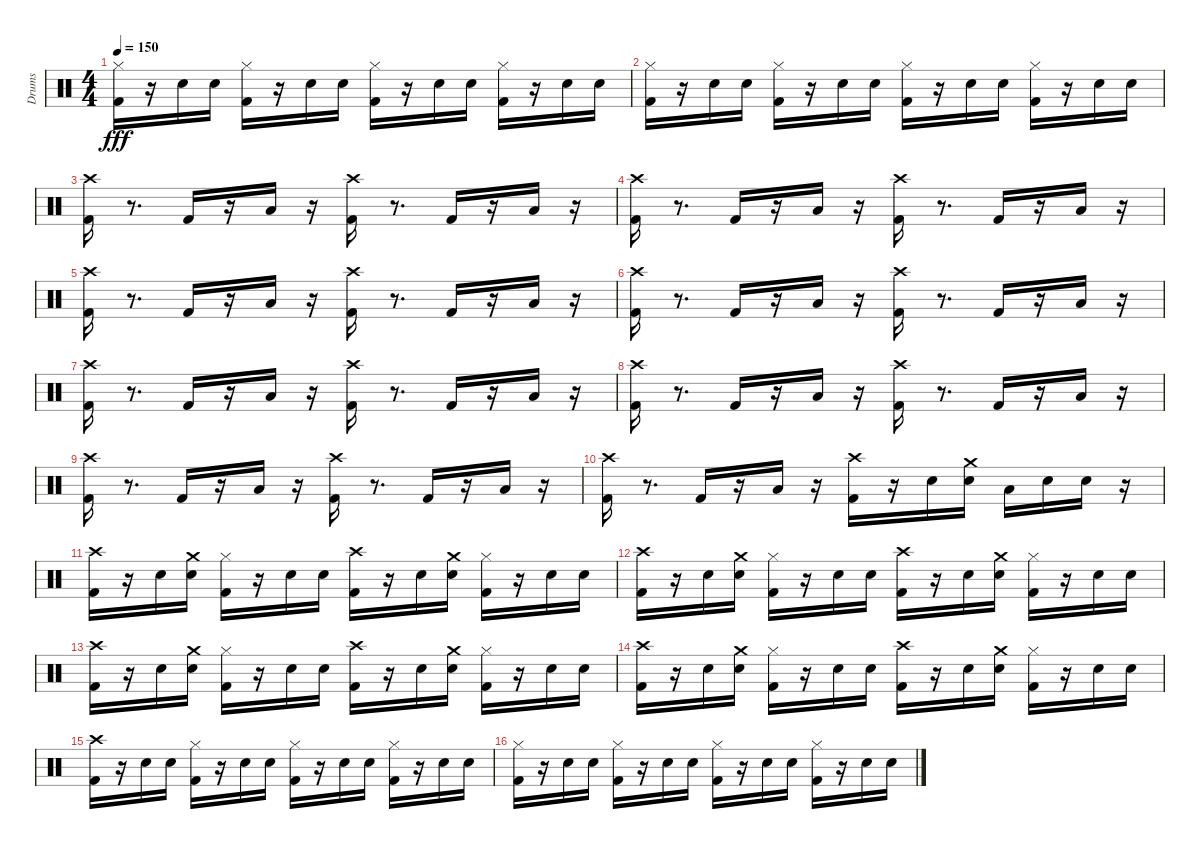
\track ("Drums" "Drums") {instrument percussion}
\staff {score}
\articulation defaults
\ts (4 4)
\tempo 150
\clef neutral
\ks c
("Kick (hit) 2" "Hi-Hat (closed)").16{dy fff} r.16 "Snare (hit) 2".16 "Snare (hit) 2".16 ("Kick (hit) 2" "Hi-Hat (closed)").16 r.16 "Snare (hit) 2".16 "Snare (hit) 2".16 ("Kick (hit) 2" "Hi-Hat (closed)").16 r.16 "Snare (hit) 2".16 "Snare (hit) 2".16 ("Hi-Hat (closed)" "Kick (hit) 2").16 r.16 "Snare (hit) 2".16 "Snare (hit) 2".16 |
("Hi-Hat (closed)" "Kick (hit) 2").16 r.16 "Snare (hit) 2".16 "Snare (hit) 2".16 ("Hi-Hat (closed)" "Kick (hit) 2").16 r.16 "Snare (hit) 2".16 "Snare (hit) 2".16 ("Kick (hit) 2" "Hi-Hat (closed)").16 r.16 "Snare (hit) 2".16 "Snare (hit) 2".16 ("Hi-Hat (closed)" "Kick (hit) 2").16 r.16 "Snare (hit) 2".16 "Snare (hit) 2".16 |
("Kick (hit) 2" "Crash high (hit)").16 r.8{d} "Kick (hit) 2".16 r.16 "Low Floor Tom (hit)".16 r.16 ("Kick (hit) 2" "Crash high (hit)").16 r.8{d} "Kick (hit) 2".16 r.16 "Low Floor Tom (hit)".16 r.16 |
("Crash high (hit)" "Kick (hit) 2").16 r.8{d} "Kick (hit) 2".16 r.16 "Low Floor Tom (hit)".16 r.16 ("Kick (hit) 2" "Crash high (hit)").16 r.8{d} "Kick (hit) 2".16 r.16 "Low Floor Tom (hit)".16 r.16 |
("Kick (hit) 2" "Crash high (hit)").16 r.8{d} "Kick (hit) 2".16 r.16 "Low Floor Tom (hit)".16 r.16 ("Kick (hit) 2" "Crash high (hit)").16 r.8{d} "Kick (hit) 2".16 r.16 "Low Floor Tom (hit)".16 r.16 |
("Kick (hit) 2" "Crash high (hit)").16 r.8{d} "Kick (hit) 2".16 r.16 "Low Floor Tom (hit)".16 r.16 ("Kick (hit) 2" "Crash high (hit)").16 r.8{d} "Kick (hit) 2".16 r.16 "Low Floor Tom (hit)".16 r.16 |
("Kick (hit) 2" "Crash high (hit)").16 r.8{d} "Kick (hit) 2".16 r.16 "Low Floor Tom (hit)".16 r.16 ("Kick (hit) 2" "Crash high (hit)").16 r.8{d} "Kick (hit) 2".16 r.16 "Low Floor Tom (hit)".16 r.16 |
("Crash high (hit)" "Kick (hit) 2").16 r.8{d} "Kick (hit) 2".16 r.16 "Low Floor Tom (hit)".16 r.16 ("Crash high (hit)" "Kick (hit) 2").16 r.8{d} "Kick (hit) 2".16 r.16 "Low Floor Tom (hit)".16 r.16 |
("Kick (hit) 2" "Crash high (hit)").16 r.8{d} "Kick (hit) 2".16 r.16 "Low Floor Tom (hit)".16 r.16 ("Kick (hit) 2" "Crash high (hit)").16 r.8{d} "Kick (hit) 2".16 r.16 "Low Floor Tom (hit)".16 r.16 |
("Kick (hit) 2" "Crash high (hit)").16 r.8{d} "Kick (hit) 2".16 r.16 "Low Floor Tom (hit)".16 r.16 ("Kick (hit) 2" "Crash high (hit)").16 r.16 "Snare (hit) 2".16 ("Crash medium (hit)" "Snare (hit) 2").16 "Low Tom (hit)".16 "Snare (hit) 2".16 "Snare (hit) 2".16 r.16 |
("Kick (hit) 2" "Crash high (hit)").16 r.16 "Snare (hit) 2".16 ("Crash medium (hit)" "Snare (hit) 2").16 ("Kick (hit) 2" "Hi-Hat (closed)").16 r.16 "Snare (hit) 2".16 "Snare (hit) 2".16 ("Crash high (hit)" "Kick (hit) 2").16 r.16 "Snare (hit) 2".16 ("Crash medium (hit)" "Snare (hit) 2").16 ("Hi-Hat (closed)" "Kick (hit) 2").16 r.16 "Snare (hit) 2".16 "Snare (hit) 2".16 |
("Crash high (hit)" "Kick (hit) 2").16 r.16 "Snare (hit) 2".16 ("Snare (hit) 2" "Crash medium (hit)").16 ("Kick (hit) 2" "Hi-Hat (closed)").16 r.16 "Snare (hit) 2".16 "Snare (hit) 2".16 ("Crash high (hit)" "Kick (hit) 2").16 r.16 "Snare (hit) 2".16 ("Crash medium (hit)" "Snare (hit) 2").16 ("Hi-Hat (closed)" "Kick (hit) 2").16 r.16 "Snare (hit) 2".16 "Snare (hit) 2".16 |
("Crash high (hit)" "Kick (hit) 2").16 r.16 "Snare (hit) 2".16 ("Crash medium (hit)" "Snare (hit) 2").16 ("Kick (hit) 2" "Hi-Hat (closed)").16 r.16 "Snare (hit) 2".16 "Snare (hit) 2".16 ("Kick (hit) 2" "Crash high (hit)").16 r.16 "Snare (hit) 2".16 ("Snare (hit) 2" "Crash medium (hit)").16 ("Hi-Hat (closed)" "Kick (hit) 2").16 r.16 "Snare (hit) 2".16 "Snare (hit) 2".16 |
("Kick (hit) 2" "Crash high (hit)").16 r.16 "Snare (hit) 2".16 ("Snare (hit) 2" "Crash medium (hit)").16 ("Hi-Hat (closed)" "Kick (hit) 2").16 r.16 "Snare (hit) 2".16 "Snare (hit) 2".16 ("Crash high (hit)" "Kick (hit) 2").16 r.16 "Snare (hit) 2".16 ("Crash medium (hit)" "Snare (hit) 2").16 ("Hi-Hat (closed)" "Kick (hit) 2").16 r.16 "Snare (hit) 2".16 "Snare (hit) 2".16 |
("Crash high (hit)" "Kick (hit) 2").16 r.16 "Snare (hit) 2".16 "Snare (hit) 2".16 ("Hi-Hat (closed)" "Kick (hit) 2").16 r.16 "Snare (hit) 2".16 "Snare (hit) 2".16 ("Hi-Hat (closed)" "Kick (hit) 2").16 r.16 "Snare (hit) 2".16 "Snare (hit) 2".16 ("Hi-Hat (closed)" "Kick (hit) 2").16 r.16 "Snare (hit) 2".16 "Snare (hit) 2".16 |
("Hi-Hat (closed)" "Kick (hit) 2").16 r.16 "Snare (hit) 2".16 "Snare (hit) 2".16 ("Hi-Hat (closed)" "Kick (hit) 2").16 r.16 "Snare (hit) 2".16 "Snare (hit) 2".16 ("Kick (hit) 2" "Hi-Hat (closed)").16 r.16 "Snare (hit) 2".16 "Snare (hit) 2".16 ("Kick (hit) 2" "Hi-Hat (closed)").16 r.16 "Snare (hit) 2".16 "Snare (hit) 2".16
